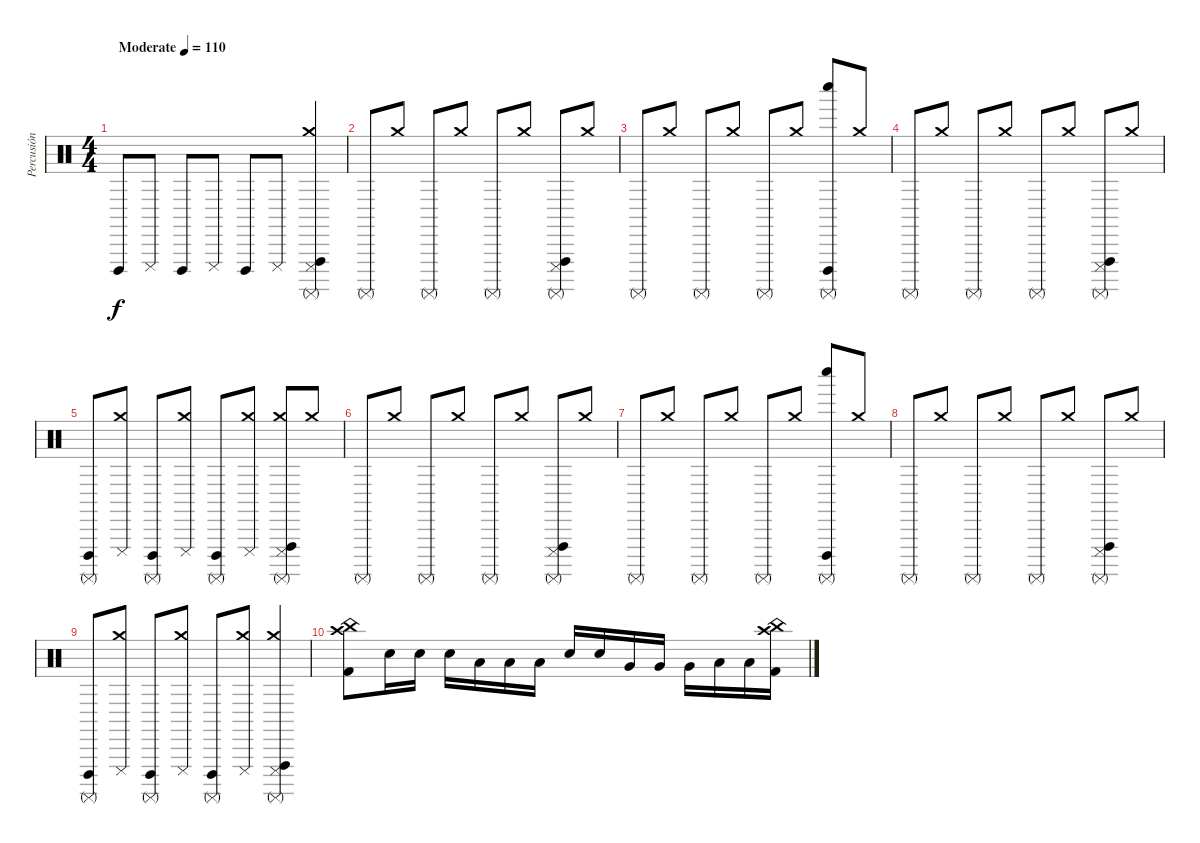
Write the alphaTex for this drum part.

\track ("Percusión" "Percusión") {instrument percussion}
\staff {score}
\articulation defaults
\ts (4 4)
\tempo (110 "Moderate")
\clef neutral
\ks c "Cuica (open)".8{dy f} "Cuica (mute)".8 "Cuica (open)".8 "Cuica (mute)".8 "Cuica (open)".8 "Cuica (mute)".8
("Crash medium (hit)" "Surdo (mute)" "Cuica (mute)" "Vibraslap (hit)").4 |
"Surdo (mute)".8 "Crash medium (hit)".8 "Surdo (mute)".8 "Crash medium (hit)".8 "Surdo (mute)".8 "Crash medium (hit)".8 ("Cuica (mute)" "Surdo (mute)" "Vibraslap (hit)").8 "Crash medium (hit)".8 |
"Surdo (mute)".8 "Crash medium (hit)".8 "Surdo (mute)".8 "Crash medium (hit)".8 "Surdo (mute)".8 "Crash medium (hit)".8 ("Cuica (open)" "Surdo (mute)" "Whistle low (hit)").8 "Crash medium (hit)".8 |
"Surdo (mute)".8 "Crash medium (hit)".8 "Surdo (mute)".8 "Crash medium (hit)".8 "Surdo (mute)".8 "Crash medium (hit)".8 ("Cuica (mute)" "Surdo (mute)" "Vibraslap (hit)").8 "Crash medium (hit)".8 |
("Surdo (mute)" "Cuica (open)").8 ("Crash medium (hit)" "Cuica (mute)").8 ("Surdo (mute)" "Cuica (open)").8 ("Crash medium (hit)" "Cuica (mute)").8 ("Surdo (mute)" "Cuica (open)").8 ("Crash medium (hit)" "Cuica (mute)").8 ("Crash medium (hit)" "Surdo (mute)" "Cuica (mute)" "Vibraslap (hit)").8 "Crash medium (hit)".8 |
"Surdo (mute)".8 "Crash medium (hit)".8 "Surdo (mute)".8 "Crash medium (hit)".8 "Surdo (mute)".8 "Crash medium (hit)".8 ("Cuica (mute)" "Surdo (mute)" "Vibraslap (hit)").8 "Crash medium (hit)".8 |
"Surdo (mute)".8 "Crash medium (hit)".8 "Surdo (mute)".8 "Crash medium (hit)".8 "Surdo (mute)".8 "Crash medium (hit)".8 ("Cuica (open)" "Surdo (mute)" "Whistle low (hit)").8 "Crash medium (hit)".8 |
"Surdo (mute)".8 "Crash medium (hit)".8 "Surdo (mute)".8 "Crash medium (hit)".8 "Surdo (mute)".8 "Crash medium (hit)".8 ("Cuica (mute)" "Surdo (mute)" "Vibraslap (hit)").8 "Crash medium (hit)".8 |
("Surdo (mute)" "Cuica (open)").8 ("Crash medium (hit)" "Cuica (mute)").8 ("Surdo (mute)" "Cuica (open)").8 ("Crash medium (hit)" "Cuica (mute)").8 ("Surdo (mute)" "Cuica (open)").8 ("Crash medium (hit)" "Cuica (mute)").8 ("Crash medium (hit)" "Surdo (mute)" "Cuica (mute)" "Vibraslap (hit)").4 |
("China (hit)" "Kick (hit) 2" "Crash high (hit)").8 "Snare (hit) 2".16 "Snare (hit) 2".16 "Snare (hit) 2".16 "Low Tom (hit)".16 "Low Tom (hit)".16 "Low Tom (hit)".16 "Snare (hit) 2".16 "Snare (hit) 2".16 "Very Low Tom (hit)".16 "Very Low Tom (hit)".16 "Very Low Tom (hit)".16 "Low Floor Tom (hit)".16 "Low Floor Tom (hit)".16 ("China (hit)" "Kick (hit) 2" "Crash high (hit)").16
